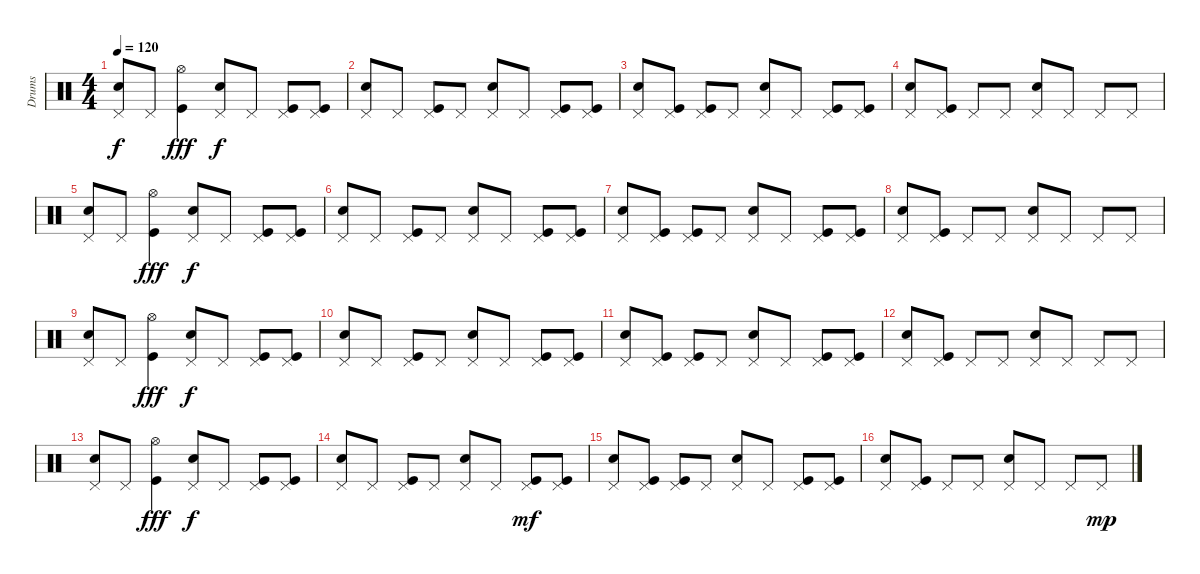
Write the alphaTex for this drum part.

\track ("Drums" "Drums") {instrument percussion}
\staff {score}
\articulation defaults
\ts (4 4)
\tempo 120
\clef neutral
\ks c
("Snare (hit) 2" "Pedal Hi-Hat (hit)").8{dy f} "Pedal Hi-Hat (hit)".8 ("Kick (hit)" "Hi-Hat (open)").4{dy fff} ("Snare (hit) 2" "Pedal Hi-Hat (hit)").8{dy f} "Pedal Hi-Hat (hit)".8 ("Kick (hit)" "Pedal Hi-Hat (hit)").8 ("Kick (hit)" "Pedal Hi-Hat (hit)").8 |
("Snare (hit) 2" "Pedal Hi-Hat (hit)").8 "Pedal Hi-Hat (hit)".8 ("Kick (hit)" "Pedal Hi-Hat (hit)").8 "Pedal Hi-Hat (hit)".8 ("Snare (hit) 2" "Pedal Hi-Hat (hit)").8 "Pedal Hi-Hat (hit)".8 ("Kick (hit)" "Pedal Hi-Hat (hit)").8 ("Kick (hit)" "Pedal Hi-Hat (hit)").8 |
("Snare (hit) 2" "Pedal Hi-Hat (hit)").8 ("Kick (hit)" "Pedal Hi-Hat (hit)").8 ("Kick (hit)" "Pedal Hi-Hat (hit)").8 "Pedal Hi-Hat (hit)".8 ("Snare (hit) 2" "Pedal Hi-Hat (hit)").8 "Pedal Hi-Hat (hit)".8 ("Kick (hit)" "Pedal Hi-Hat (hit)").8 ("Kick (hit)" "Pedal Hi-Hat (hit)").8 |
("Snare (hit) 2" "Pedal Hi-Hat (hit)").8 ("Kick (hit)" "Pedal Hi-Hat (hit)").8 "Pedal Hi-Hat (hit)".8 "Pedal Hi-Hat (hit)".8 ("Snare (hit) 2" "Pedal Hi-Hat (hit)").8 "Pedal Hi-Hat (hit)".8 "Pedal Hi-Hat (hit)".8 "Pedal Hi-Hat (hit)".8 |
("Snare (hit) 2" "Pedal Hi-Hat (hit)").8 "Pedal Hi-Hat (hit)".8 ("Kick (hit)" "Hi-Hat (open)").4{dy fff} ("Snare (hit) 2" "Pedal Hi-Hat (hit)").8{dy f} "Pedal Hi-Hat (hit)".8 ("Kick (hit)" "Pedal Hi-Hat (hit)").8 ("Kick (hit)" "Pedal Hi-Hat (hit)").8 |
("Snare (hit) 2" "Pedal Hi-Hat (hit)").8 "Pedal Hi-Hat (hit)".8 ("Kick (hit)" "Pedal Hi-Hat (hit)").8 "Pedal Hi-Hat (hit)".8 ("Snare (hit) 2" "Pedal Hi-Hat (hit)").8 "Pedal Hi-Hat (hit)".8 ("Kick (hit)" "Pedal Hi-Hat (hit)").8 ("Kick (hit)" "Pedal Hi-Hat (hit)").8 |
("Snare (hit) 2" "Pedal Hi-Hat (hit)").8 ("Kick (hit)" "Pedal Hi-Hat (hit)").8 ("Kick (hit)" "Pedal Hi-Hat (hit)").8 "Pedal Hi-Hat (hit)".8 ("Snare (hit) 2" "Pedal Hi-Hat (hit)").8 "Pedal Hi-Hat (hit)".8 ("Kick (hit)" "Pedal Hi-Hat (hit)").8 ("Kick (hit)" "Pedal Hi-Hat (hit)").8 |
("Snare (hit) 2" "Pedal Hi-Hat (hit)").8 ("Kick (hit)" "Pedal Hi-Hat (hit)").8 "Pedal Hi-Hat (hit)".8 "Pedal Hi-Hat (hit)".8 ("Snare (hit) 2" "Pedal Hi-Hat (hit)").8 "Pedal Hi-Hat (hit)".8 "Pedal Hi-Hat (hit)".8 "Pedal Hi-Hat (hit)".8 |
("Snare (hit) 2" "Pedal Hi-Hat (hit)").8 "Pedal Hi-Hat (hit)".8 ("Kick (hit)" "Hi-Hat (open)").4{dy fff} ("Snare (hit) 2" "Pedal Hi-Hat (hit)").8{dy f} "Pedal Hi-Hat (hit)".8 ("Kick (hit)" "Pedal Hi-Hat (hit)").8 ("Kick (hit)" "Pedal Hi-Hat (hit)").8 |
("Snare (hit) 2" "Pedal Hi-Hat (hit)").8 "Pedal Hi-Hat (hit)".8 ("Kick (hit)" "Pedal Hi-Hat (hit)").8 "Pedal Hi-Hat (hit)".8 ("Snare (hit) 2" "Pedal Hi-Hat (hit)").8 "Pedal Hi-Hat (hit)".8 ("Kick (hit)" "Pedal Hi-Hat (hit)").8 ("Kick (hit)" "Pedal Hi-Hat (hit)").8 |
("Snare (hit) 2" "Pedal Hi-Hat (hit)").8 ("Kick (hit)" "Pedal Hi-Hat (hit)").8 ("Kick (hit)" "Pedal Hi-Hat (hit)").8 "Pedal Hi-Hat (hit)".8 ("Snare (hit) 2" "Pedal Hi-Hat (hit)").8 "Pedal Hi-Hat (hit)".8 ("Kick (hit)" "Pedal Hi-Hat (hit)").8 ("Kick (hit)" "Pedal Hi-Hat (hit)").8 |
("Snare (hit) 2" "Pedal Hi-Hat (hit)").8 ("Kick (hit)" "Pedal Hi-Hat (hit)").8 "Pedal Hi-Hat (hit)".8 "Pedal Hi-Hat (hit)".8 ("Snare (hit) 2" "Pedal Hi-Hat (hit)").8 "Pedal Hi-Hat (hit)".8 "Pedal Hi-Hat (hit)".8 "Pedal Hi-Hat (hit)".8 |
("Snare (hit) 2" "Pedal Hi-Hat (hit)").8 "Pedal Hi-Hat (hit)".8 ("Kick (hit)" "Hi-Hat (open)").4{dy fff} ("Snare (hit) 2" "Pedal Hi-Hat (hit)").8{dy f} "Pedal Hi-Hat (hit)".8 ("Kick (hit)" "Pedal Hi-Hat (hit)").8 ("Kick (hit)" "Pedal Hi-Hat (hit)").8 |
("Snare (hit) 2" "Pedal Hi-Hat (hit)").8 "Pedal Hi-Hat (hit)".8 ("Kick (hit)" "Pedal Hi-Hat (hit)").8 "Pedal Hi-Hat (hit)".8 ("Snare (hit) 2" "Pedal Hi-Hat (hit)").8 "Pedal Hi-Hat (hit)".8 ("Kick (hit)" "Pedal Hi-Hat (hit)").8{dy mf} ("Kick (hit)" "Pedal Hi-Hat (hit)").8 |
("Snare (hit) 2" "Pedal Hi-Hat (hit)").8 ("Kick (hit)" "Pedal Hi-Hat (hit)").8 ("Kick (hit)" "Pedal Hi-Hat (hit)").8 "Pedal Hi-Hat (hit)".8 ("Snare (hit) 2" "Pedal Hi-Hat (hit)").8 "Pedal Hi-Hat (hit)".8 ("Kick (hit)" "Pedal Hi-Hat (hit)").8 ("Kick (hit)" "Pedal Hi-Hat (hit)").8 |
("Snare (hit) 2" "Pedal Hi-Hat (hit)").8 ("Kick (hit)" "Pedal Hi-Hat (hit)").8 "Pedal Hi-Hat (hit)".8 "Pedal Hi-Hat (hit)".8 ("Snare (hit) 2" "Pedal Hi-Hat (hit)").8 "Pedal Hi-Hat (hit)".8 "Pedal Hi-Hat (hit)".8 "Pedal Hi-Hat (hit)".8{dy mp}
